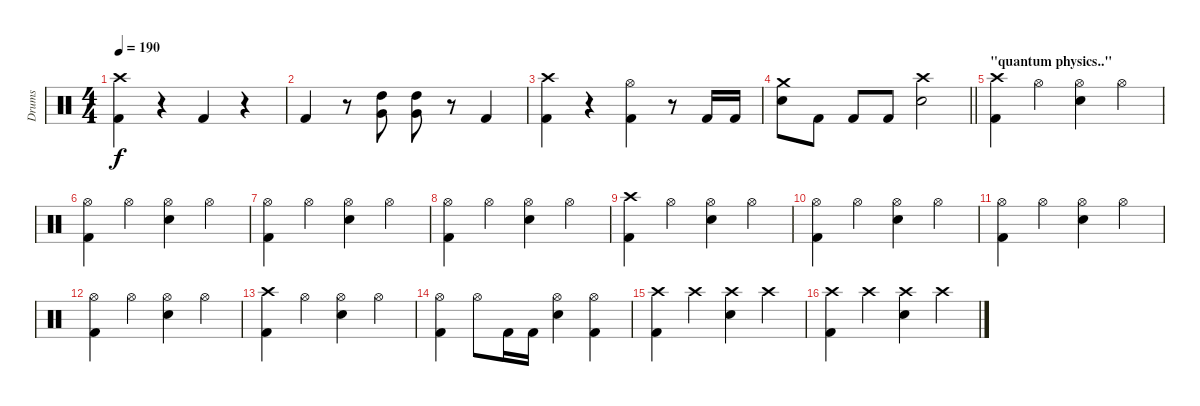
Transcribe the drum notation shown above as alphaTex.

\track ("Drums" "Drums") {instrument percussion}
\staff {score}
\articulation defaults
\ts (4 4)
\tempo 190
\clef neutral
\ks c
("Crash high (hit)" "Kick (hit) 2").4{dy f} r.4 "Kick (hit) 2".4 r.4 |
"Kick (hit) 2".4 r.8 ("High Tom (hit)" "Very Low Tom (hit)").8 ("High Tom (hit)" "Very Low Tom (hit)").8 r.8 "Kick (hit) 2".4 |
("Crash high (hit)" "Kick (hit) 2").4 r.4 ("Hi-Hat (open)" "Kick (hit) 2").4 r.8 "Kick (hit) 2".16 "Kick (hit) 2".16 |
\barLineRight lightlight
("Crash medium (hit)" "Snare (hit) 2").8 "Kick (hit) 2".8 "Kick (hit) 2".8 "Kick (hit) 2".8 ("Crash high (hit)" "Snare (hit) 2").2 |
\section ("" "\"quantum physics..\"")
("Crash high (hit)" "Kick (hit) 2").4 "Hi-Hat (open)".4 ("Hi-Hat (open)" "Snare (hit) 2").4 "Hi-Hat (open)".4 |
("Hi-Hat (open)" "Kick (hit) 2").4 "Hi-Hat (open)".4 ("Hi-Hat (open)" "Snare (hit) 2").4 "Hi-Hat (open)".4 |
("Hi-Hat (open)" "Kick (hit) 2").4 "Hi-Hat (open)".4 ("Hi-Hat (open)" "Snare (hit) 2").4 "Hi-Hat (open)".4 |
("Hi-Hat (open)" "Kick (hit) 2").4 "Hi-Hat (open)".4 ("Hi-Hat (open)" "Snare (hit) 2").4 "Hi-Hat (open)".4 |
("Crash high (hit)" "Kick (hit) 2").4 "Hi-Hat (open)".4 ("Hi-Hat (open)" "Snare (hit) 2").4 "Hi-Hat (open)".4 |
("Hi-Hat (open)" "Kick (hit) 2").4 "Hi-Hat (open)".4 ("Hi-Hat (open)" "Snare (hit) 2").4 "Hi-Hat (open)".4 |
("Hi-Hat (open)" "Kick (hit) 2").4 "Hi-Hat (open)".4 ("Hi-Hat (open)" "Snare (hit) 2").4 "Hi-Hat (open)".4 |
("Hi-Hat (open)" "Kick (hit) 2").4 "Hi-Hat (open)".4 ("Hi-Hat (open)" "Snare (hit) 2").4 "Hi-Hat (open)".4 |
("Crash high (hit)" "Kick (hit) 2").4 "Hi-Hat (open)".4 ("Hi-Hat (open)" "Snare (hit) 2").4 "Hi-Hat (open)".4 |
("Hi-Hat (open)" "Kick (hit) 2").4 "Hi-Hat (open)".8 "Kick (hit) 2".16 "Kick (hit) 2".16 ("Hi-Hat (open)" "Snare (hit) 2").4 ("Hi-Hat (open)" "Kick (hit) 2").4 |
("Crash high (hit)" "Kick (hit) 2").4 "Crash high (hit)".4 ("Crash high (hit)" "Snare (hit) 2").4 "Crash high (hit)".4 |
("Crash high (hit)" "Kick (hit) 2").4 "Crash high (hit)".4 ("Crash high (hit)" "Snare (hit) 2").4 "Crash high (hit)".4
